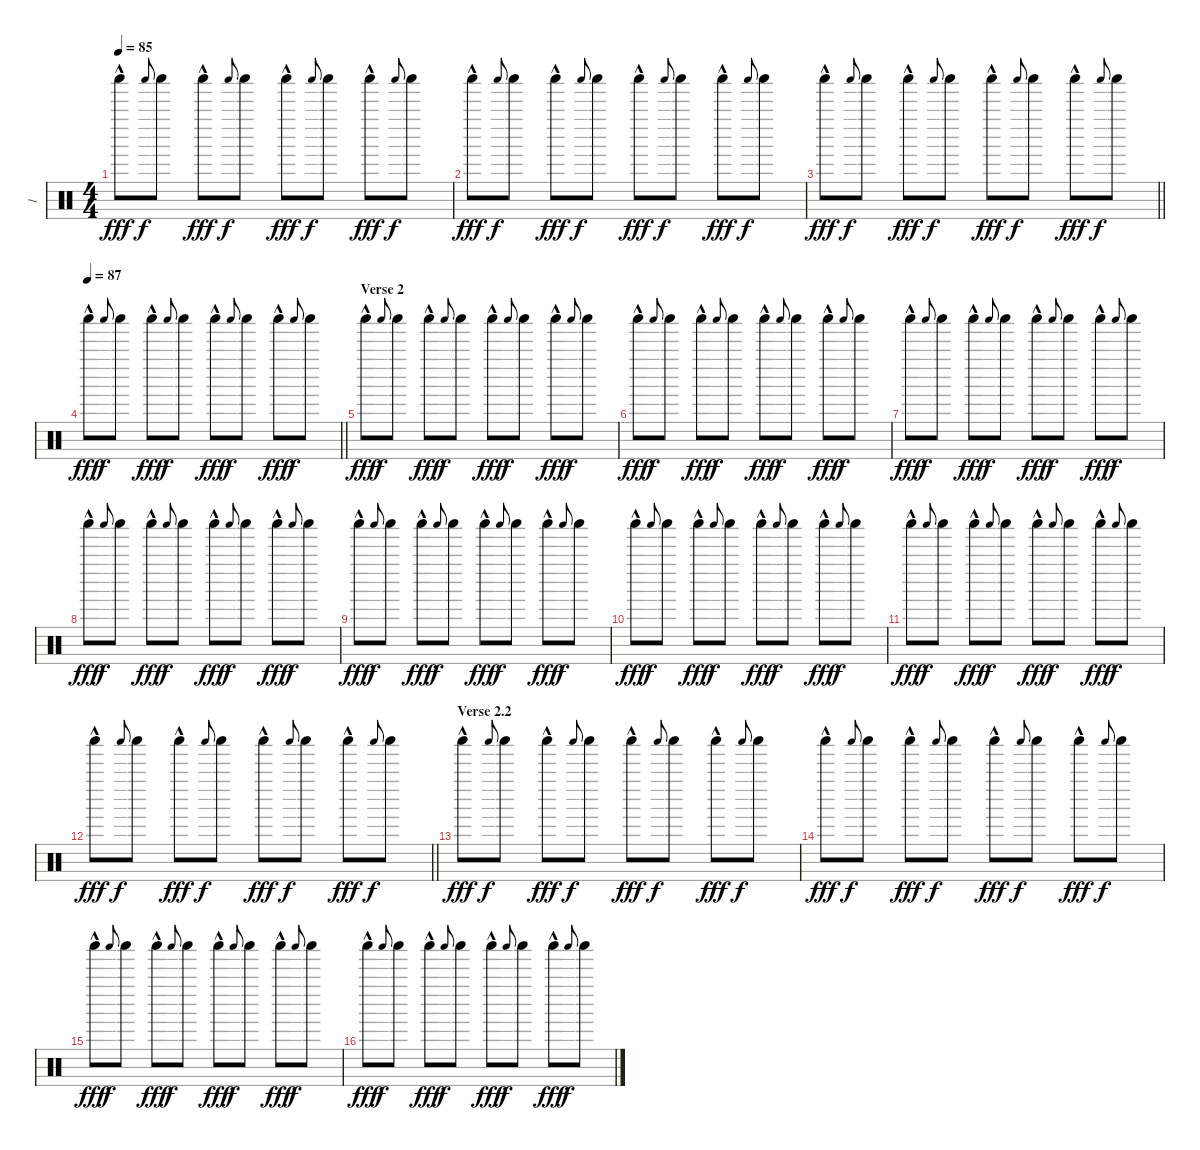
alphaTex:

\track ("1" "1") {instrument percussion}
\staff {score}
\articulation defaults
\ts (4 4)
\tempo 85
\clef neutral
\ks c "Shaker (hit)"{hac}.8{dy fff} "Shaker (hit)".8{gr onbeat dy f} "Shaker (hit)".8 "Shaker (hit)"{hac}.8{dy fff} "Shaker (hit)".8{gr onbeat dy f} "Shaker (hit)".8 "Shaker (hit)"{hac}.8{dy fff} "Shaker (hit)".8{gr onbeat dy f} "Shaker (hit)".8 "Shaker (hit)"{hac}.8{dy fff} "Shaker (hit)".8{gr onbeat dy f} "Shaker (hit)".8
|
"Shaker (hit)"{hac}.8{dy fff} "Shaker (hit)".8{gr onbeat dy f} "Shaker (hit)".8 "Shaker (hit)"{hac}.8{dy fff} "Shaker (hit)".8{gr onbeat dy f} "Shaker (hit)".8 "Shaker (hit)"{hac}.8{dy fff} "Shaker (hit)".8{gr onbeat dy f} "Shaker (hit)".8 "Shaker (hit)"{hac}.8{dy fff} "Shaker (hit)".8{gr onbeat dy f} "Shaker (hit)".8 |
\barLineRight lightlight "Shaker (hit)"{hac}.8{dy fff} "Shaker (hit)".8{gr onbeat dy f} "Shaker (hit)".8 "Shaker (hit)"{hac}.8{dy fff} "Shaker (hit)".8{gr onbeat dy f} "Shaker (hit)".8 "Shaker (hit)"{hac}.8{dy fff} "Shaker (hit)".8{gr onbeat dy f} "Shaker (hit)".8 "Shaker (hit)"{hac}.8{dy fff} "Shaker (hit)".8{gr onbeat dy f} "Shaker (hit)".8
|
\section ("" "")
\tempo 87
\barLineRight lightlight "Shaker (hit)"{hac}.8{dy fff} "Shaker (hit)".8{gr onbeat dy f} "Shaker (hit)".8 "Shaker (hit)"{hac}.8{dy fff} "Shaker (hit)".8{gr onbeat dy f} "Shaker (hit)".8 "Shaker (hit)"{hac}.8{dy fff} "Shaker (hit)".8{gr onbeat dy f} "Shaker (hit)".8 "Shaker (hit)"{hac}.8{dy fff} "Shaker (hit)".8{gr onbeat dy f} "Shaker (hit)".8
|
\section ("" "Verse 2")
"Shaker (hit)"{hac}.8{dy fff} "Shaker (hit)".8{gr onbeat dy f} "Shaker (hit)".8 "Shaker (hit)"{hac}.8{dy fff} "Shaker (hit)".8{gr onbeat dy f} "Shaker (hit)".8 "Shaker (hit)"{hac}.8{dy fff} "Shaker (hit)".8{gr onbeat dy f} "Shaker (hit)".8 "Shaker (hit)"{hac}.8{dy fff} "Shaker (hit)".8{gr onbeat dy f} "Shaker (hit)".8 |
"Shaker (hit)"{hac}.8{dy fff} "Shaker (hit)".8{gr onbeat dy f} "Shaker (hit)".8 "Shaker (hit)"{hac}.8{dy fff} "Shaker (hit)".8{gr onbeat dy f} "Shaker (hit)".8 "Shaker (hit)"{hac}.8{dy fff} "Shaker (hit)".8{gr onbeat dy f} "Shaker (hit)".8 "Shaker (hit)"{hac}.8{dy fff} "Shaker (hit)".8{gr onbeat dy f} "Shaker (hit)".8 |
"Shaker (hit)"{hac}.8{dy fff} "Shaker (hit)".8{gr onbeat dy f} "Shaker (hit)".8 "Shaker (hit)"{hac}.8{dy fff} "Shaker (hit)".8{gr onbeat dy f} "Shaker (hit)".8 "Shaker (hit)"{hac}.8{dy fff} "Shaker (hit)".8{gr onbeat dy f} "Shaker (hit)".8 "Shaker (hit)"{hac}.8{dy fff} "Shaker (hit)".8{gr onbeat dy f} "Shaker (hit)".8 |
"Shaker (hit)"{hac}.8{dy fff} "Shaker (hit)".8{gr onbeat dy f} "Shaker (hit)".8 "Shaker (hit)"{hac}.8{dy fff} "Shaker (hit)".8{gr onbeat dy f} "Shaker (hit)".8 "Shaker (hit)"{hac}.8{dy fff} "Shaker (hit)".8{gr onbeat dy f} "Shaker (hit)".8 "Shaker (hit)"{hac}.8{dy fff} "Shaker (hit)".8{gr onbeat dy f} "Shaker (hit)".8 |
"Shaker (hit)"{hac}.8{dy fff} "Shaker (hit)".8{gr onbeat dy f} "Shaker (hit)".8 "Shaker (hit)"{hac}.8{dy fff} "Shaker (hit)".8{gr onbeat dy f} "Shaker (hit)".8 "Shaker (hit)"{hac}.8{dy fff} "Shaker (hit)".8{gr onbeat dy f} "Shaker (hit)".8 "Shaker (hit)"{hac}.8{dy fff} "Shaker (hit)".8{gr onbeat dy f} "Shaker (hit)".8 |
"Shaker (hit)"{hac}.8{dy fff} "Shaker (hit)".8{gr onbeat dy f} "Shaker (hit)".8 "Shaker (hit)"{hac}.8{dy fff} "Shaker (hit)".8{gr onbeat dy f} "Shaker (hit)".8 "Shaker (hit)"{hac}.8{dy fff} "Shaker (hit)".8{gr onbeat dy f} "Shaker (hit)".8 "Shaker (hit)"{hac}.8{dy fff} "Shaker (hit)".8{gr onbeat dy f} "Shaker (hit)".8 |
"Shaker (hit)"{hac}.8{dy fff} "Shaker (hit)".8{gr onbeat dy f} "Shaker (hit)".8 "Shaker (hit)"{hac}.8{dy fff} "Shaker (hit)".8{gr onbeat dy f} "Shaker (hit)".8 "Shaker (hit)"{hac}.8{dy fff} "Shaker (hit)".8{gr onbeat dy f} "Shaker (hit)".8 "Shaker (hit)"{hac}.8{dy fff} "Shaker (hit)".8{gr onbeat dy f} "Shaker (hit)".8 |
\barLineRight lightlight "Shaker (hit)"{hac}.8{dy fff} "Shaker (hit)".8{gr onbeat dy f} "Shaker (hit)".8 "Shaker (hit)"{hac}.8{dy fff} "Shaker (hit)".8{gr onbeat dy f} "Shaker (hit)".8 "Shaker (hit)"{hac}.8{dy fff} "Shaker (hit)".8{gr onbeat dy f} "Shaker (hit)".8 "Shaker (hit)"{hac}.8{dy fff} "Shaker (hit)".8{gr onbeat dy f} "Shaker (hit)".8
|
\section ("" "Verse 2.2")
"Shaker (hit)"{hac}.8{dy fff} "Shaker (hit)".8{gr onbeat dy f} "Shaker (hit)".8 "Shaker (hit)"{hac}.8{dy fff} "Shaker (hit)".8{gr onbeat dy f} "Shaker (hit)".8 "Shaker (hit)"{hac}.8{dy fff} "Shaker (hit)".8{gr onbeat dy f} "Shaker (hit)".8 "Shaker (hit)"{hac}.8{dy fff} "Shaker (hit)".8{gr onbeat dy f} "Shaker (hit)".8 |
"Shaker (hit)"{hac}.8{dy fff} "Shaker (hit)".8{gr onbeat dy f} "Shaker (hit)".8 "Shaker (hit)"{hac}.8{dy fff} "Shaker (hit)".8{gr onbeat dy f} "Shaker (hit)".8 "Shaker (hit)"{hac}.8{dy fff} "Shaker (hit)".8{gr onbeat dy f} "Shaker (hit)".8 "Shaker (hit)"{hac}.8{dy fff} "Shaker (hit)".8{gr onbeat dy f} "Shaker (hit)".8 |
"Shaker (hit)"{hac}.8{dy fff} "Shaker (hit)".8{gr onbeat dy f} "Shaker (hit)".8 "Shaker (hit)"{hac}.8{dy fff} "Shaker (hit)".8{gr onbeat dy f} "Shaker (hit)".8 "Shaker (hit)"{hac}.8{dy fff} "Shaker (hit)".8{gr onbeat dy f} "Shaker (hit)".8 "Shaker (hit)"{hac}.8{dy fff} "Shaker (hit)".8{gr onbeat dy f} "Shaker (hit)".8 |
"Shaker (hit)"{hac}.8{dy fff} "Shaker (hit)".8{gr onbeat dy f} "Shaker (hit)".8 "Shaker (hit)"{hac}.8{dy fff} "Shaker (hit)".8{gr onbeat dy f} "Shaker (hit)".8 "Shaker (hit)"{hac}.8{dy fff} "Shaker (hit)".8{gr onbeat dy f} "Shaker (hit)".8 "Shaker (hit)"{hac}.8{dy fff} "Shaker (hit)".8{gr onbeat dy f} "Shaker (hit)".8
